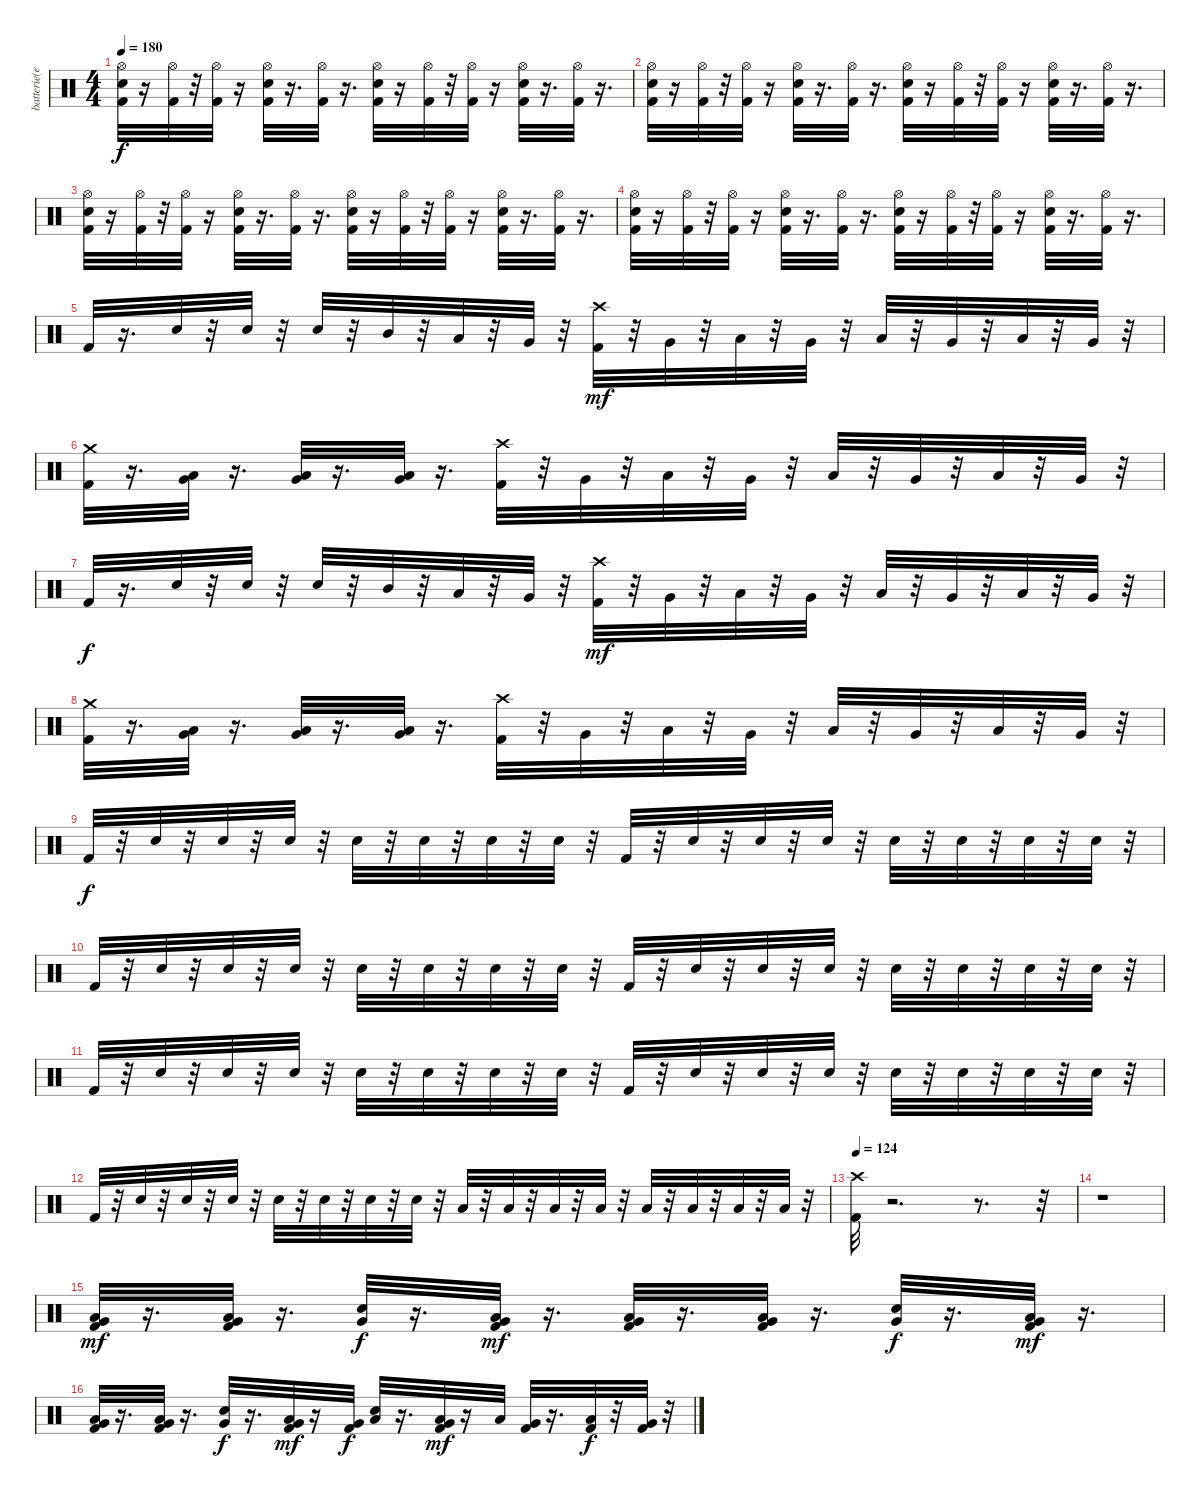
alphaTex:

\track ("batterie(eric)" "batterie(e") {instrument percussion}
\staff {score}
\articulation defaults
\ts (4 4)
\tempo 180
\clef neutral
\ks c
("Kick (hit) 2" "Snare (hit) 2" "Hi-Hat (open)").32{dy f} r.16 ("Kick (hit) 2" "Hi-Hat (open)").32 r.32 ("Kick (hit) 2" "Hi-Hat (open)").32 r.16 ("Kick (hit) 2" "Snare (hit) 2" "Hi-Hat (open)").32 r.16{d} ("Kick (hit) 2" "Hi-Hat (open)").32 r.16{d} ("Kick (hit) 2" "Snare (hit) 2" "Hi-Hat (open)").32 r.16 ("Kick (hit) 2" "Hi-Hat (open)").32 r.32 ("Kick (hit) 2" "Hi-Hat (open)").32 r.16 ("Kick (hit) 2" "Snare (hit) 2" "Hi-Hat (open)").32 r.16{d} ("Kick (hit) 2" "Hi-Hat (open)").32 r.16{d} |
("Kick (hit) 2" "Snare (hit) 2" "Hi-Hat (open)").32 r.16 ("Kick (hit) 2" "Hi-Hat (open)").32 r.32 ("Kick (hit) 2" "Hi-Hat (open)").32 r.16 ("Kick (hit) 2" "Snare (hit) 2" "Hi-Hat (open)").32 r.16{d} ("Kick (hit) 2" "Hi-Hat (open)").32 r.16{d} ("Kick (hit) 2" "Snare (hit) 2" "Hi-Hat (open)").32 r.16 ("Kick (hit) 2" "Hi-Hat (open)").32 r.32 ("Kick (hit) 2" "Hi-Hat (open)").32 r.16 ("Kick (hit) 2" "Snare (hit) 2" "Hi-Hat (open)").32 r.16{d} ("Kick (hit) 2" "Hi-Hat (open)").32 r.16{d} |
("Kick (hit) 2" "Snare (hit) 2" "Hi-Hat (open)").32 r.16 ("Kick (hit) 2" "Hi-Hat (open)").32 r.32 ("Kick (hit) 2" "Hi-Hat (open)").32 r.16 ("Kick (hit) 2" "Snare (hit) 2" "Hi-Hat (open)").32 r.16{d} ("Kick (hit) 2" "Hi-Hat (open)").32 r.16{d} ("Kick (hit) 2" "Snare (hit) 2" "Hi-Hat (open)").32 r.16 ("Kick (hit) 2" "Hi-Hat (open)").32 r.32 ("Kick (hit) 2" "Hi-Hat (open)").32 r.16 ("Kick (hit) 2" "Snare (hit) 2" "Hi-Hat (open)").32 r.16{d} ("Kick (hit) 2" "Hi-Hat (open)").32 r.16{d} |
("Kick (hit) 2" "Snare (hit) 2" "Hi-Hat (open)").32 r.16 ("Kick (hit) 2" "Hi-Hat (open)").32 r.32 ("Kick (hit) 2" "Hi-Hat (open)").32 r.16 ("Kick (hit) 2" "Snare (hit) 2" "Hi-Hat (open)").32 r.16{d} ("Kick (hit) 2" "Hi-Hat (open)").32 r.16{d} ("Kick (hit) 2" "Snare (hit) 2" "Hi-Hat (open)").32 r.16 ("Kick (hit) 2" "Hi-Hat (open)").32 r.32 ("Kick (hit) 2" "Hi-Hat (open)").32 r.16 ("Kick (hit) 2" "Snare (hit) 2" "Hi-Hat (open)").32 r.16{d} ("Kick (hit) 2" "Hi-Hat (open)").32 r.16{d} |
"Kick (hit) 2".32 r.16{d} "Snare (hit) 2".32 r.32 "Snare (hit) 2".32 r.32 "Snare (hit) 2".32 r.32 "Mid Tom (hit)".32 r.32 "Low Tom (hit)".32 r.32 "Very Low Tom (hit)".32 r.32 ("Kick (hit) 2" "Crash high (hit)").32{dy mf} r.32 "Very Low Tom (hit)".32 r.32 "Low Floor Tom (hit)".32 r.32 "Very Low Tom (hit)".32 r.32 "Low Floor Tom (hit)".32 r.32 "Very Low Tom (hit)".32 r.32 "Low Floor Tom (hit)".32 r.32 "Very Low Tom (hit)".32 r.32 |
("Kick (hit) 2" "Crash medium (hit)").32 r.16{d} ("Low Floor Tom (hit)" "Very Low Tom (hit)").32 r.16{d} ("Low Floor Tom (hit)" "Very Low Tom (hit)").32 r.16{d} ("Low Floor Tom (hit)" "Very Low Tom (hit)").32 r.16{d} ("Kick (hit) 2" "Crash high (hit)").32 r.32 "Very Low Tom (hit)".32 r.32 "Low Floor Tom (hit)".32 r.32 "Very Low Tom (hit)".32 r.32 "Low Floor Tom (hit)".32 r.32 "Very Low Tom (hit)".32 r.32 "Low Floor Tom (hit)".32 r.32 "Very Low Tom (hit)".32 r.32 |
"Kick (hit) 2".32{dy f} r.16{d} "Snare (hit) 2".32 r.32 "Snare (hit) 2".32 r.32 "Snare (hit) 2".32 r.32 "Mid Tom (hit)".32 r.32 "Low Tom (hit)".32 r.32 "Very Low Tom (hit)".32 r.32 ("Kick (hit) 2" "Crash high (hit)").32{dy mf} r.32 "Very Low Tom (hit)".32 r.32 "Low Floor Tom (hit)".32 r.32 "Very Low Tom (hit)".32 r.32 "Low Floor Tom (hit)".32 r.32 "Very Low Tom (hit)".32 r.32 "Low Floor Tom (hit)".32 r.32 "Very Low Tom (hit)".32 r.32 |
("Kick (hit) 2" "Crash medium (hit)").32 r.16{d} ("Low Floor Tom (hit)" "Very Low Tom (hit)").32 r.16{d} ("Low Floor Tom (hit)" "Very Low Tom (hit)").32 r.16{d} ("Low Floor Tom (hit)" "Very Low Tom (hit)").32 r.16{d} ("Kick (hit) 2" "Crash high (hit)").32 r.32 "Very Low Tom (hit)".32 r.32 "Low Floor Tom (hit)".32 r.32 "Very Low Tom (hit)".32 r.32 "Low Floor Tom (hit)".32 r.32 "Very Low Tom (hit)".32 r.32 "Low Floor Tom (hit)".32 r.32 "Very Low Tom (hit)".32 r.32 |
"Kick (hit) 2".32{dy f} r.32 "Snare (hit) 2".32 r.32 "Snare (hit) 2".32 r.32 "Snare (hit) 2".32 r.32 "Snare (hit) 2".32 r.32 "Snare (hit) 2".32 r.32 "Snare (hit) 2".32 r.32 "Snare (hit) 2".32 r.32 "Kick (hit) 2".32 r.32 "Snare (hit) 2".32 r.32 "Snare (hit) 2".32 r.32 "Snare (hit) 2".32 r.32 "Snare (hit) 2".32 r.32 "Snare (hit) 2".32 r.32 "Snare (hit) 2".32 r.32 "Snare (hit) 2".32 r.32 |
"Kick (hit) 2".32 r.32 "Snare (hit) 2".32 r.32 "Snare (hit) 2".32 r.32 "Snare (hit) 2".32 r.32 "Snare (hit) 2".32 r.32 "Snare (hit) 2".32 r.32 "Snare (hit) 2".32 r.32 "Snare (hit) 2".32 r.32 "Kick (hit) 2".32 r.32 "Snare (hit) 2".32 r.32 "Snare (hit) 2".32 r.32 "Snare (hit) 2".32 r.32 "Snare (hit) 2".32 r.32 "Snare (hit) 2".32 r.32 "Snare (hit) 2".32 r.32 "Snare (hit) 2".32 r.32 |
"Kick (hit) 2".32 r.32 "Snare (hit) 2".32 r.32 "Snare (hit) 2".32 r.32 "Snare (hit) 2".32 r.32 "Snare (hit) 2".32 r.32 "Snare (hit) 2".32 r.32 "Snare (hit) 2".32 r.32 "Snare (hit) 2".32 r.32 "Kick (hit) 2".32 r.32 "Snare (hit) 2".32 r.32 "Snare (hit) 2".32 r.32 "Snare (hit) 2".32 r.32 "Snare (hit) 2".32 r.32 "Snare (hit) 2".32 r.32 "Snare (hit) 2".32 r.32 "Snare (hit) 2".32 r.32 |
"Kick (hit) 2".32 r.32 "Snare (hit) 2".32 r.32 "Snare (hit) 2".32 r.32 "Snare (hit) 2".32 r.32 "Snare (hit) 2".32 r.32 "Snare (hit) 2".32 r.32 "Snare (hit) 2".32 r.32 "Snare (hit) 2".32 r.32 "Low Tom (hit)".32 r.32 "Low Tom (hit)".32 r.32 "Low Tom (hit)".32 r.32 "Low Tom (hit)".32 r.32 "Low Tom (hit)".32 r.32 "Low Tom (hit)".32 r.32 "Low Tom (hit)".32 r.32 "Low Tom (hit)".32 r.32 |
\tempo 124
("Kick (hit) 2" "Crash high (hit)").32 r.2{d} r.8{d} r.32 |
r.1 |
("Kick (hit) 2" "Low Floor Tom (hit)" "Very Low Tom (hit)").32{dy mf} r.16{d} ("Kick (hit) 2" "Low Floor Tom (hit)" "Very Low Tom (hit)").32 r.16{d} ("Snare (hit) 2" "Very Low Tom (hit)").32{dy f} r.16{d} ("Kick (hit) 2" "Low Floor Tom (hit)" "Very Low Tom (hit)").32{dy mf} r.16{d} ("Kick (hit) 2" "Low Floor Tom (hit)" "Very Low Tom (hit)").32 r.16{d} ("Kick (hit) 2" "Low Floor Tom (hit)" "Very Low Tom (hit)").32 r.16{d} ("Snare (hit) 2" "Very Low Tom (hit)").32{dy f} r.16{d} ("Kick (hit) 2" "Low Floor Tom (hit)" "Very Low Tom (hit)").32{dy mf} r.16{d} |
("Kick (hit) 2" "Low Floor Tom (hit)" "Very Low Tom (hit)").32 r.16{d} ("Kick (hit) 2" "Low Floor Tom (hit)" "Very Low Tom (hit)").32 r.16{d} ("Snare (hit) 2" "Very Low Tom (hit)").32{dy f} r.16{d} ("Kick (hit) 2" "Low Floor Tom (hit)" "Very Low Tom (hit)").32{dy mf} r.16 ("Kick (hit) 2" "Very Low Tom (hit)").32{dy f} ("Snare (hit) 2" "Low Floor Tom (hit)").32 r.16{d} ("Kick (hit) 2" "Low Floor Tom (hit)" "Very Low Tom (hit)").32{dy mf} r.16 "Low Tom (hit)".32 ("Kick (hit) 2" "Very Low Tom (hit)").32 r.16{d} ("Kick (hit) 2" "Low Tom (hit)").32{dy f} r.32 ("Kick (hit) 2" "Very Low Tom (hit)").32 r.32
